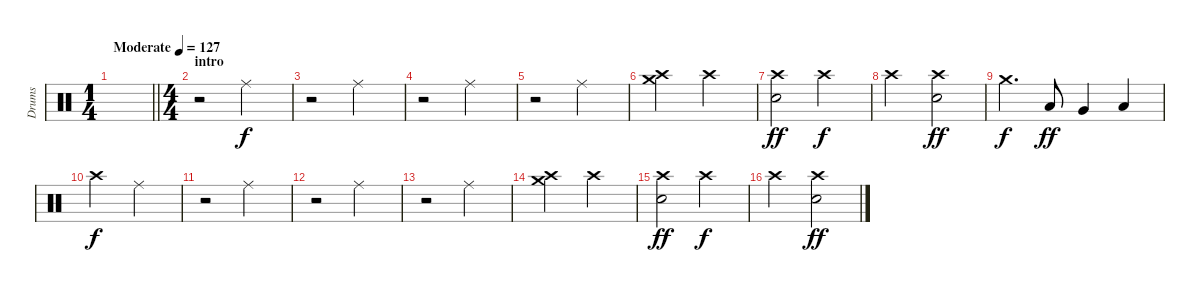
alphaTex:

\track ("Drums" "Drums") {instrument percussion}
\staff {score}
\articulation defaults
\ts (1 4)
\tempo (127 "Moderate")
\clef neutral
\barLineRight lightlight
\ks c
|
\ts (4 4)
\section ("" "intro")
r.2 "Ride (middle)".2 |
r.2 "Ride (middle)".2 |
r.2 "Ride (middle)".2 |
r.2 "Ride (middle)".2 |
("Crash high (hit)" "Crash medium (hit)").2 "Crash high (hit)".2 |
("Crash high (hit)" "Snare (hit) 2").2{dy ff} "Crash high (hit)".2{dy f} |
"Crash high (hit)".2 ("Crash high (hit)" "Snare (hit) 2").2{dy ff} |
"Crash medium (hit)".4{d dy f} "Low Tom (hit)".8{dy ff} "Very Low Tom (hit)".4 "Low Floor Tom (hit)".4 |
"Crash high (hit)".2{dy f} "Ride (middle)".2 |
r.2 "Ride (middle)".2 |
r.2 "Ride (middle)".2 |
r.2 "Ride (middle)".2 |
("Crash high (hit)" "Crash medium (hit)").2 "Crash high (hit)".2 |
("Crash high (hit)" "Snare (hit) 2").2{dy ff} "Crash high (hit)".2{dy f} |
"Crash high (hit)".2 ("Crash high (hit)" "Snare (hit) 2").2{dy ff}
